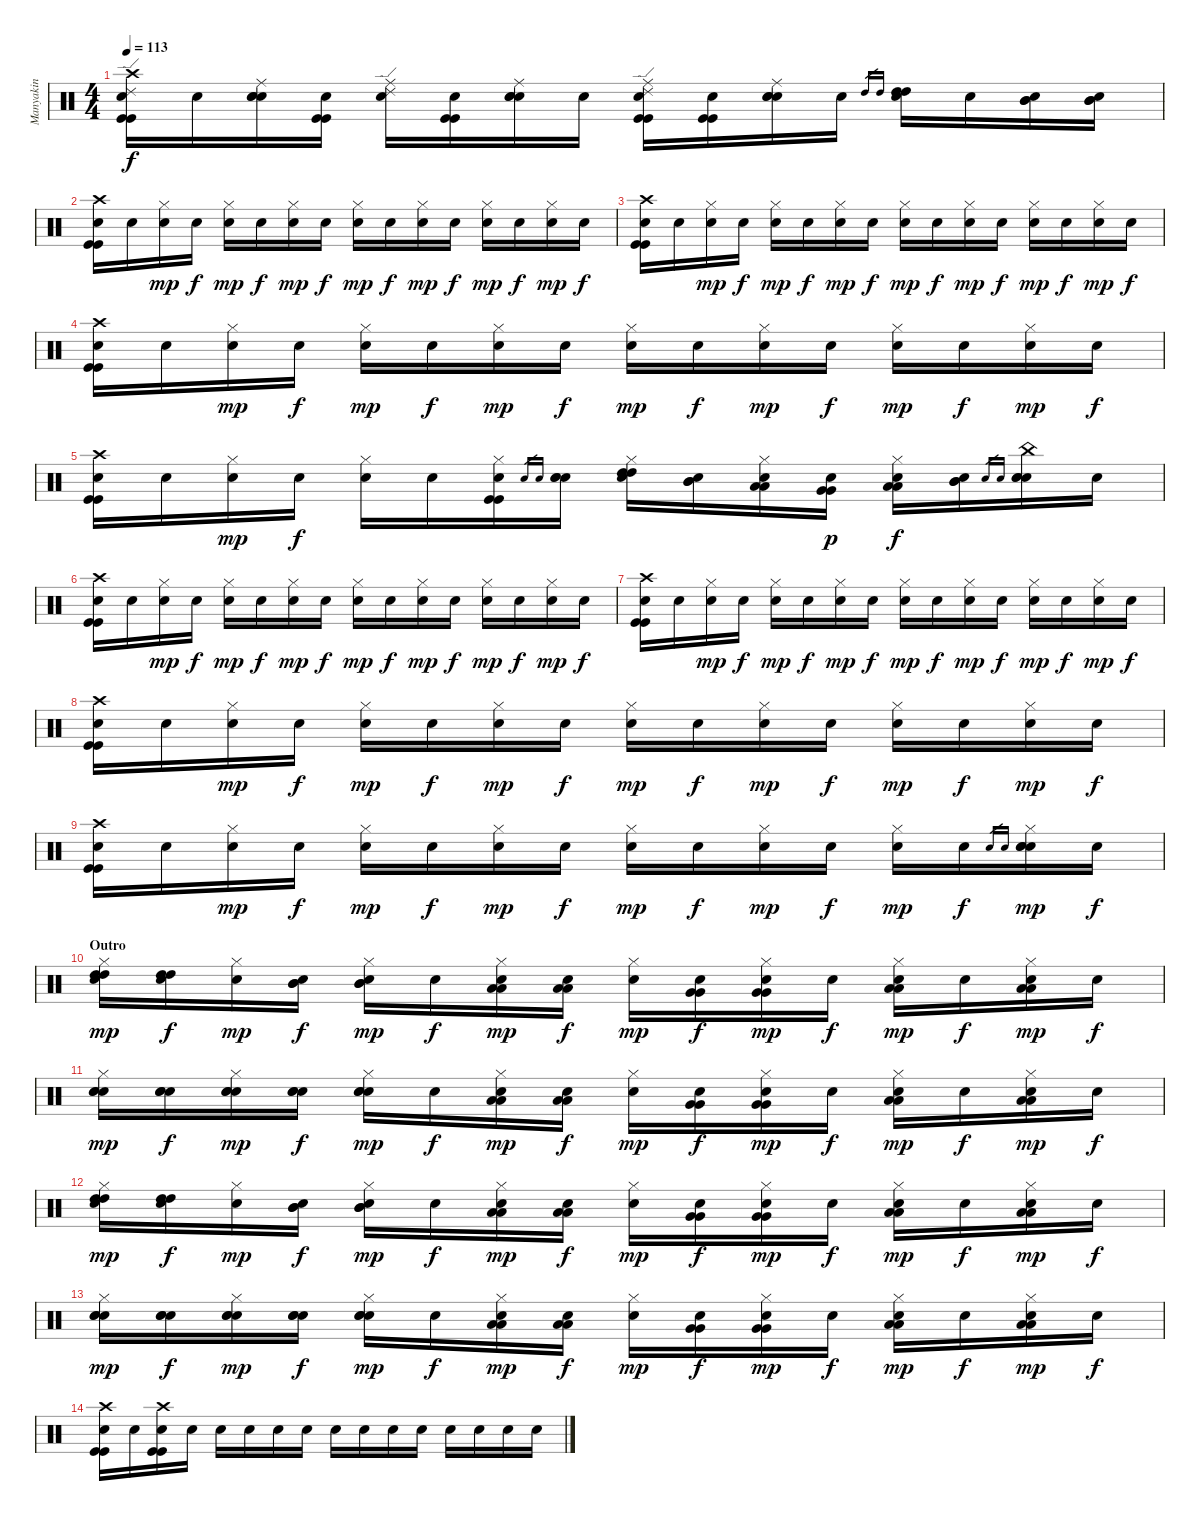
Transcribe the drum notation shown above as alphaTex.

\track ("Manyakin" "Manyakin") {instrument percussion}
\staff {score}
\articulation defaults
\ts (4 4)
\tempo 113
\clef neutral
\ks c
("Crash high (hit)" "Ride (edge) 2" "Kick (hit)" "Kick (hit)" "Snare (hit)"{x}).16{dy f} "Snare (hit)"{x}.16 ("Ride (middle)" "Electric Snare (hit)" "Electric Snare (hit)" "Snare (hit)"{x}).16 ("Kick (hit)" "Kick (hit)" "Snare (hit)"{x}).16 ("Ride (middle)" "Ride (edge) 2" "Snare (hit)"{x}).16 ("Kick (hit)" "Kick (hit)" "Snare (hit)"{x}).16 ("Ride (middle)" "Electric Snare (hit)" "Electric Snare (hit)" "Snare (hit)"{x}).16 "Snare (hit)"{x}.16 ("Ride (middle)" "Ride (edge) 2" "Kick (hit)" "Kick (hit)" "Snare (hit)"{x}).16 ("Kick (hit)" "Kick (hit)" "Snare (hit)"{x}).16 ("Ride (middle)" "Electric Snare (hit)" "Electric Snare (hit)" "Snare (hit)"{x}).16 "Snare (hit)"{x}.16 "High Tom (hit)".16{gr} "High Tom (hit)".16{gr} ("High Tom (hit)" "High Tom (hit)" "Snare (hit)"{x}).16 "Snare (hit)"{x}.16 ("Mid Tom (hit)" "Mid Tom (hit)" "Snare (hit)"{x}).16 ("Mid Tom (hit)" "Mid Tom (hit)" "Snare (hit)"{x}).16 |
("Crash high (hit)" "Kick (hit)" "Kick (hit)" "Snare (hit)"{x}).16 "Snare (hit)"{x}.16 ("Hi-Hat (closed)" "Snare (hit)"{x}).16{dy mp} "Snare (hit)"{x}.16{dy f} ("Hi-Hat (closed)" "Snare (hit)"{x}).16{dy mp} "Snare (hit)"{x}.16{dy f} ("Hi-Hat (closed)" "Snare (hit)"{x}).16{dy mp} "Snare (hit)"{x}.16{dy f} ("Hi-Hat (closed)" "Snare (hit)"{x}).16{dy mp} "Snare (hit)"{x}.16{dy f} ("Hi-Hat (closed)" "Snare (hit)"{x}).16{dy mp} "Snare (hit)"{x}.16{dy f} ("Hi-Hat (closed)" "Snare (hit)"{x}).16{dy mp} "Snare (hit)"{x}.16{dy f} ("Hi-Hat (closed)" "Snare (hit)"{x}).16{dy mp} "Snare (hit)"{x}.16{dy f} |
("Crash high (hit)" "Kick (hit)" "Kick (hit)" "Snare (hit)"{x}).16 "Snare (hit)"{x}.16 ("Hi-Hat (closed)" "Snare (hit)"{x}).16{dy mp} "Snare (hit)"{x}.16{dy f} ("Hi-Hat (closed)" "Snare (hit)"{x}).16{dy mp} "Snare (hit)"{x}.16{dy f} ("Hi-Hat (closed)" "Snare (hit)"{x}).16{dy mp} "Snare (hit)"{x}.16{dy f} ("Hi-Hat (closed)" "Snare (hit)"{x}).16{dy mp} "Snare (hit)"{x}.16{dy f} ("Hi-Hat (closed)" "Snare (hit)"{x}).16{dy mp} "Snare (hit)"{x}.16{dy f} ("Hi-Hat (closed)" "Snare (hit)"{x}).16{dy mp} "Snare (hit)"{x}.16{dy f} ("Hi-Hat (closed)" "Snare (hit)"{x}).16{dy mp} "Snare (hit)"{x}.16{dy f} |
("Crash high (hit)" "Kick (hit)" "Kick (hit)" "Snare (hit)"{x}).16 "Snare (hit)"{x}.16 ("Hi-Hat (closed)" "Snare (hit)"{x}).16{dy mp} "Snare (hit)"{x}.16{dy f} ("Hi-Hat (closed)" "Snare (hit)"{x}).16{dy mp} "Snare (hit)"{x}.16{dy f} ("Hi-Hat (closed)" "Snare (hit)"{x}).16{dy mp} "Snare (hit)"{x}.16{dy f} ("Hi-Hat (closed)" "Snare (hit)"{x}).16{dy mp} "Snare (hit)"{x}.16{dy f} ("Hi-Hat (closed)" "Snare (hit)"{x}).16{dy mp} "Snare (hit)"{x}.16{dy f} ("Hi-Hat (closed)" "Snare (hit)"{x}).16{dy mp} "Snare (hit)"{x}.16{dy f} ("Hi-Hat (closed)" "Snare (hit)"{x}).16{dy mp} "Snare (hit)"{x}.16{dy f} |
("Crash high (hit)" "Kick (hit)" "Kick (hit)" "Snare (hit)"{x}).16 "Snare (hit)"{x}.16 ("Hi-Hat (closed)" "Snare (hit)"{x}).16{dy mp} "Snare (hit)"{x}.16{dy f} ("Hi-Hat (closed)" "Snare (hit)"{x}).16 "Snare (hit)"{x}.16 ("Hi-Hat (closed)" "Kick (hit)" "Kick (hit)" "Snare (hit)"{x}).16 "Electric Snare (hit)".16{gr} "Electric Snare (hit)".16{gr} ("Electric Snare (hit)" "Electric Snare (hit)" "Snare (hit)"{x}).16 ("Hi-Hat (closed)" "High Tom (hit)" "High Tom (hit)" "Snare (hit)"{x}).16 ("Mid Tom (hit)" "Mid Tom (hit)" "Snare (hit)"{x}).16 ("Hi-Hat (closed)" "Low Tom (hit)" "Low Tom (hit)" "Snare (hit)"{x}).16 ("Very Low Tom (hit)" "Very Low Tom (hit)" "Snare (hit)"{x}).16{dy p} ("Hi-Hat (closed)" "Low Tom (hit)" "Low Tom (hit)" "Snare (hit)"{x}).16{dy f} ("Mid Tom (hit)" "Mid Tom (hit)" "Snare (hit)"{x}).16 "Electric Snare (hit)".16{gr} "Electric Snare (hit)".16{gr} ("China (hit)" "Electric Snare (hit)" "Electric Snare (hit)" "Snare (hit)"{x}).16 "Snare (hit)"{x}.16 |
("Crash high (hit)" "Kick (hit)" "Kick (hit)" "Snare (hit)"{x}).16 "Snare (hit)"{x}.16 ("Hi-Hat (closed)" "Snare (hit)"{x}).16{dy mp} "Snare (hit)"{x}.16{dy f} ("Hi-Hat (closed)" "Snare (hit)"{x}).16{dy mp} "Snare (hit)"{x}.16{dy f} ("Hi-Hat (closed)" "Snare (hit)"{x}).16{dy mp} "Snare (hit)"{x}.16{dy f} ("Hi-Hat (closed)" "Snare (hit)"{x}).16{dy mp} "Snare (hit)"{x}.16{dy f} ("Hi-Hat (closed)" "Snare (hit)"{x}).16{dy mp} "Snare (hit)"{x}.16{dy f} ("Hi-Hat (closed)" "Snare (hit)"{x}).16{dy mp} "Snare (hit)"{x}.16{dy f} ("Hi-Hat (closed)" "Snare (hit)"{x}).16{dy mp} "Snare (hit)"{x}.16{dy f} |
("Crash high (hit)" "Kick (hit)" "Kick (hit)" "Snare (hit)"{x}).16 "Snare (hit)"{x}.16 ("Hi-Hat (closed)" "Snare (hit)"{x}).16{dy mp} "Snare (hit)"{x}.16{dy f} ("Hi-Hat (closed)" "Snare (hit)"{x}).16{dy mp} "Snare (hit)"{x}.16{dy f} ("Hi-Hat (closed)" "Snare (hit)"{x}).16{dy mp} "Snare (hit)"{x}.16{dy f} ("Hi-Hat (closed)" "Snare (hit)"{x}).16{dy mp} "Snare (hit)"{x}.16{dy f} ("Hi-Hat (closed)" "Snare (hit)"{x}).16{dy mp} "Snare (hit)"{x}.16{dy f} ("Hi-Hat (closed)" "Snare (hit)"{x}).16{dy mp} "Snare (hit)"{x}.16{dy f} ("Hi-Hat (closed)" "Snare (hit)"{x}).16{dy mp} "Snare (hit)"{x}.16{dy f} |
("Crash high (hit)" "Kick (hit)" "Kick (hit)" "Snare (hit)"{x}).16 "Snare (hit)"{x}.16 ("Hi-Hat (closed)" "Snare (hit)"{x}).16{dy mp} "Snare (hit)"{x}.16{dy f} ("Hi-Hat (closed)" "Snare (hit)"{x}).16{dy mp} "Snare (hit)"{x}.16{dy f} ("Hi-Hat (closed)" "Snare (hit)"{x}).16{dy mp} "Snare (hit)"{x}.16{dy f} ("Hi-Hat (closed)" "Snare (hit)"{x}).16{dy mp} "Snare (hit)"{x}.16{dy f} ("Hi-Hat (closed)" "Snare (hit)"{x}).16{dy mp} "Snare (hit)"{x}.16{dy f} ("Hi-Hat (closed)" "Snare (hit)"{x}).16{dy mp} "Snare (hit)"{x}.16{dy f} ("Hi-Hat (closed)" "Snare (hit)"{x}).16{dy mp} "Snare (hit)"{x}.16{dy f} |
("Crash high (hit)" "Kick (hit)" "Kick (hit)" "Snare (hit)"{x}).16 "Snare (hit)"{x}.16 ("Hi-Hat (closed)" "Snare (hit)"{x}).16{dy mp} "Snare (hit)"{x}.16{dy f} ("Hi-Hat (closed)" "Snare (hit)"{x}).16{dy mp} "Snare (hit)"{x}.16{dy f} ("Hi-Hat (closed)" "Snare (hit)"{x}).16{dy mp} "Snare (hit)"{x}.16{dy f} ("Hi-Hat (closed)" "Snare (hit)"{x}).16{dy mp} "Snare (hit)"{x}.16{dy f} ("Hi-Hat (closed)" "Snare (hit)"{x}).16{dy mp} "Snare (hit)"{x}.16{dy f} ("Hi-Hat (closed)" "Snare (hit)"{x}).16{dy mp} "Snare (hit)"{x}.16{dy f} "Electric Snare (hit)".16{gr} "Electric Snare (hit)".16{gr} ("Hi-Hat (closed)" "Electric Snare (hit)" "Electric Snare (hit)" "Snare (hit)"{x}).16{dy mp} "Snare (hit)"{x}.16{dy f} |
\section ("" "Outro")
("Hi-Hat (closed)" "High Tom (hit)" "High Tom (hit)" "Snare (hit)"{x}).16{dy mp} ("High Tom (hit)" "High Tom (hit)" "Snare (hit)"{x}).16{dy f} ("Hi-Hat (closed)" "Snare (hit)"{x}).16{dy mp} ("Mid Tom (hit)" "Mid Tom (hit)" "Snare (hit)"{x}).16{dy f} ("Hi-Hat (closed)" "Mid Tom (hit)" "Mid Tom (hit)" "Snare (hit)"{x}).16{dy mp} "Snare (hit)"{x}.16{dy f} ("Hi-Hat (closed)" "Low Tom (hit)" "Low Tom (hit)" "Snare (hit)"{x}).16{dy mp} ("Low Tom (hit)" "Low Tom (hit)" "Snare (hit)"{x}).16{dy f} ("Hi-Hat (closed)" "Snare (hit)"{x}).16{dy mp} ("Very Low Tom (hit)" "Very Low Tom (hit)" "Snare (hit)"{x}).16{dy f} ("Hi-Hat (closed)" "Very Low Tom (hit)" "Very Low Tom (hit)" "Snare (hit)"{x}).16{dy mp} "Snare (hit)"{x}.16{dy f} ("Hi-Hat (closed)" "Low Floor Tom (hit)" "Low Floor Tom (hit)" "Snare (hit)"{x}).16{dy mp} "Snare (hit)"{x}.16{dy f} ("Hi-Hat (closed)" "Low Floor Tom (hit)" "Low Floor Tom (hit)" "Snare (hit)"{x}).16{dy mp} "Snare (hit)"{x}.16{dy f} |
("Hi-Hat (closed)" "Electric Snare (hit)" "Electric Snare (hit)" "Snare (hit)"{x}).16{dy mp} ("Electric Snare (hit)" "Electric Snare (hit)" "Snare (hit)"{x}).16{dy f} ("Hi-Hat (closed)" "Electric Snare (hit)" "Electric Snare (hit)" "Snare (hit)"{x}).16{dy mp} ("Electric Snare (hit)" "Electric Snare (hit)" "Snare (hit)"{x}).16{dy f} ("Hi-Hat (closed)" "Electric Snare (hit)" "Electric Snare (hit)" "Snare (hit)"{x}).16{dy mp} "Snare (hit)"{x}.16{dy f} ("Hi-Hat (closed)" "Low Tom (hit)" "Low Tom (hit)" "Snare (hit)"{x}).16{dy mp} ("Low Tom (hit)" "Low Tom (hit)" "Snare (hit)"{x}).16{dy f} ("Hi-Hat (closed)" "Snare (hit)"{x}).16{dy mp} ("Very Low Tom (hit)" "Very Low Tom (hit)" "Snare (hit)"{x}).16{dy f} ("Hi-Hat (closed)" "Very Low Tom (hit)" "Very Low Tom (hit)" "Snare (hit)"{x}).16{dy mp} "Snare (hit)"{x}.16{dy f} ("Hi-Hat (closed)" "Low Floor Tom (hit)" "Low Floor Tom (hit)" "Snare (hit)"{x}).16{dy mp} "Snare (hit)"{x}.16{dy f} ("Hi-Hat (closed)" "Low Floor Tom (hit)" "Low Floor Tom (hit)" "Snare (hit)"{x}).16{dy mp} "Snare (hit)"{x}.16{dy f} |
("Hi-Hat (closed)" "High Tom (hit)" "High Tom (hit)" "Snare (hit)"{x}).16{dy mp} ("High Tom (hit)" "High Tom (hit)" "Snare (hit)"{x}).16{dy f} ("Hi-Hat (closed)" "Snare (hit)"{x}).16{dy mp} ("Mid Tom (hit)" "Mid Tom (hit)" "Snare (hit)"{x}).16{dy f} ("Hi-Hat (closed)" "Mid Tom (hit)" "Mid Tom (hit)" "Snare (hit)"{x}).16{dy mp} "Snare (hit)"{x}.16{dy f} ("Hi-Hat (closed)" "Low Tom (hit)" "Low Tom (hit)" "Snare (hit)"{x}).16{dy mp} ("Low Tom (hit)" "Low Tom (hit)" "Snare (hit)"{x}).16{dy f} ("Hi-Hat (closed)" "Snare (hit)"{x}).16{dy mp} ("Very Low Tom (hit)" "Very Low Tom (hit)" "Snare (hit)"{x}).16{dy f} ("Hi-Hat (closed)" "Very Low Tom (hit)" "Very Low Tom (hit)" "Snare (hit)"{x}).16{dy mp} "Snare (hit)"{x}.16{dy f} ("Hi-Hat (closed)" "Low Floor Tom (hit)" "Low Floor Tom (hit)" "Snare (hit)"{x}).16{dy mp} "Snare (hit)"{x}.16{dy f} ("Hi-Hat (closed)" "Low Floor Tom (hit)" "Low Floor Tom (hit)" "Snare (hit)"{x}).16{dy mp} "Snare (hit)"{x}.16{dy f} |
("Hi-Hat (closed)" "Electric Snare (hit)" "Electric Snare (hit)" "Snare (hit)"{x}).16{dy mp} ("Electric Snare (hit)" "Electric Snare (hit)" "Snare (hit)"{x}).16{dy f} ("Hi-Hat (closed)" "Electric Snare (hit)" "Electric Snare (hit)" "Snare (hit)"{x}).16{dy mp} ("Electric Snare (hit)" "Electric Snare (hit)" "Snare (hit)"{x}).16{dy f} ("Hi-Hat (closed)" "Electric Snare (hit)" "Electric Snare (hit)" "Snare (hit)"{x}).16{dy mp} "Snare (hit)"{x}.16{dy f} ("Hi-Hat (closed)" "Low Tom (hit)" "Low Tom (hit)" "Snare (hit)"{x}).16{dy mp} ("Low Tom (hit)" "Low Tom (hit)" "Snare (hit)"{x}).16{dy f} ("Hi-Hat (closed)" "Snare (hit)"{x}).16{dy mp} ("Very Low Tom (hit)" "Very Low Tom (hit)" "Snare (hit)"{x}).16{dy f} ("Hi-Hat (closed)" "Very Low Tom (hit)" "Very Low Tom (hit)" "Snare (hit)"{x}).16{dy mp} "Snare (hit)"{x}.16{dy f} ("Hi-Hat (closed)" "Low Floor Tom (hit)" "Low Floor Tom (hit)" "Snare (hit)"{x}).16{dy mp} "Snare (hit)"{x}.16{dy f} ("Hi-Hat (closed)" "Low Floor Tom (hit)" "Low Floor Tom (hit)" "Snare (hit)"{x}).16{dy mp} "Snare (hit)"{x}.16{dy f} |
("Crash high (hit)" "Kick (hit)" "Kick (hit)" "Snare (hit)"{x}).16 "Snare (hit)"{x}.16 ("Crash high (hit)" "Kick (hit)" "Kick (hit)" "Snare (hit)"{x}).16 "Snare (hit)"{x}.16 "Snare (hit)"{x}.16 "Snare (hit)"{x}.16 "Snare (hit)"{x}.16 "Snare (hit)"{x}.16 "Snare (hit)"{x}.16 "Snare (hit)"{x}.16 "Snare (hit)"{x}.16 "Snare (hit)"{x}.16 "Snare (hit)"{x}.16 "Snare (hit)"{x}.16 "Snare (hit)"{x}.16 "Snare (hit)"{x}.16
